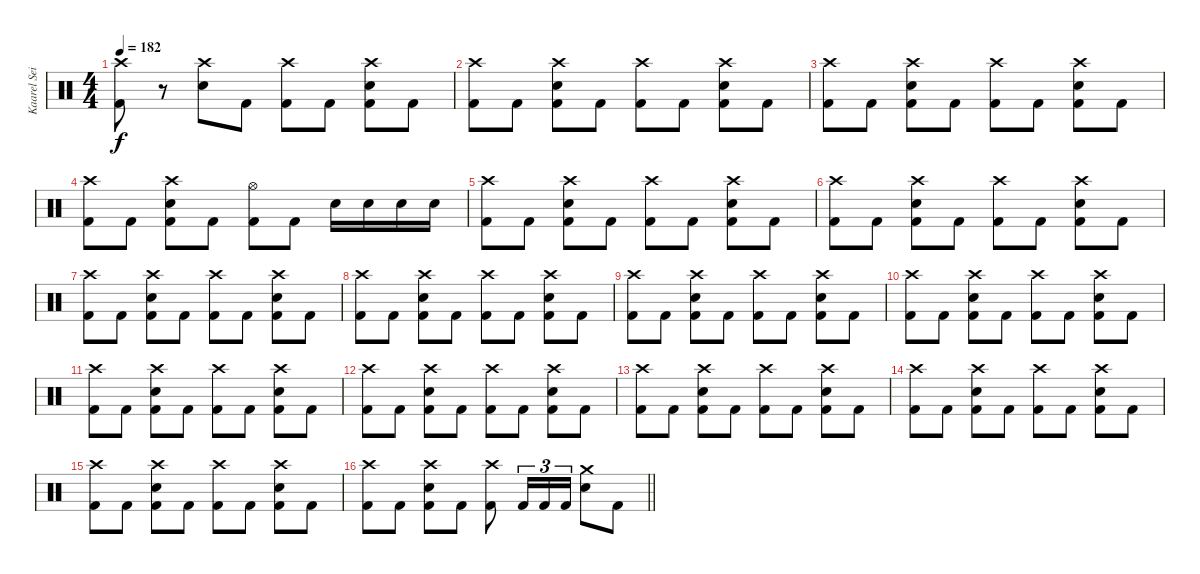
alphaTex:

\track ("Kaarel Sein" "Kaarel Sei") {instrument percussion}
\staff {score}
\articulation defaults
\ts (4 4)
\tempo 182
\clef neutral
\ks c
("Crash high (hit)" "Kick (hit) 2").8{dy f} r.8 ("Crash high (hit)" "Electric Snare (hit)").8 "Kick (hit) 2".8 ("Crash high (hit)" "Kick (hit) 2").8 "Kick (hit) 2".8 ("Crash high (hit)" "Electric Snare (hit)" "Kick (hit) 2").8 "Kick (hit) 2".8 |
("Crash high (hit)" "Kick (hit) 2").8 "Kick (hit) 2".8 ("Crash high (hit)" "Electric Snare (hit)" "Kick (hit) 2").8 "Kick (hit) 2".8 ("Crash high (hit)" "Kick (hit) 2").8 "Kick (hit) 2".8 ("Crash high (hit)" "Electric Snare (hit)" "Kick (hit) 2").8 "Kick (hit) 2".8 |
("Crash high (hit)" "Kick (hit) 2").8 "Kick (hit) 2".8 ("Crash high (hit)" "Electric Snare (hit)" "Kick (hit) 2").8 "Kick (hit) 2".8 ("Crash high (hit)" "Kick (hit) 2").8 "Kick (hit) 2".8 ("Crash high (hit)" "Electric Snare (hit)" "Kick (hit) 2").8 "Kick (hit) 2".8 |
("Crash high (hit)" "Kick (hit) 2").8 "Kick (hit) 2".8 ("Crash high (hit)" "Electric Snare (hit)" "Kick (hit) 2").8 "Kick (hit) 2".8 ("Hi-Hat (open)" "Kick (hit) 2").8 "Kick (hit) 2".8 "Electric Snare (hit)".16 "Electric Snare (hit)".16 "Electric Snare (hit)".16 "Electric Snare (hit)".16 |
("Crash high (hit)" "Kick (hit) 2").8 "Kick (hit) 2".8 ("Crash high (hit)" "Electric Snare (hit)" "Kick (hit) 2").8 "Kick (hit) 2".8 ("Crash high (hit)" "Kick (hit) 2").8 "Kick (hit) 2".8 ("Crash high (hit)" "Electric Snare (hit)" "Kick (hit) 2").8 "Kick (hit) 2".8 |
("Crash high (hit)" "Kick (hit) 2").8 "Kick (hit) 2".8 ("Crash high (hit)" "Electric Snare (hit)" "Kick (hit) 2").8 "Kick (hit) 2".8 ("Crash high (hit)" "Kick (hit) 2").8 "Kick (hit) 2".8 ("Crash high (hit)" "Electric Snare (hit)" "Kick (hit) 2").8 "Kick (hit) 2".8 |
("Crash high (hit)" "Kick (hit) 2").8 "Kick (hit) 2".8 ("Crash high (hit)" "Electric Snare (hit)" "Kick (hit) 2").8 "Kick (hit) 2".8 ("Crash high (hit)" "Kick (hit) 2").8 "Kick (hit) 2".8 ("Crash high (hit)" "Electric Snare (hit)" "Kick (hit) 2").8 "Kick (hit) 2".8 |
("Crash high (hit)" "Kick (hit) 2").8 "Kick (hit) 2".8 ("Crash high (hit)" "Electric Snare (hit)" "Kick (hit) 2").8 "Kick (hit) 2".8 ("Crash high (hit)" "Kick (hit) 2").8 "Kick (hit) 2".8 ("Crash high (hit)" "Electric Snare (hit)" "Kick (hit) 2").8 "Kick (hit) 2".8 |
("Crash high (hit)" "Kick (hit) 2").8 "Kick (hit) 2".8 ("Crash high (hit)" "Electric Snare (hit)" "Kick (hit) 2").8 "Kick (hit) 2".8 ("Crash high (hit)" "Kick (hit) 2").8 "Kick (hit) 2".8 ("Crash high (hit)" "Electric Snare (hit)" "Kick (hit) 2").8 "Kick (hit) 2".8 |
("Crash high (hit)" "Kick (hit) 2").8 "Kick (hit) 2".8 ("Crash high (hit)" "Electric Snare (hit)" "Kick (hit) 2").8 "Kick (hit) 2".8 ("Crash high (hit)" "Kick (hit) 2").8 "Kick (hit) 2".8 ("Crash high (hit)" "Electric Snare (hit)" "Kick (hit) 2").8 "Kick (hit) 2".8 |
("Crash high (hit)" "Kick (hit) 2").8 "Kick (hit) 2".8 ("Crash high (hit)" "Electric Snare (hit)" "Kick (hit) 2").8 "Kick (hit) 2".8 ("Crash high (hit)" "Kick (hit) 2").8 "Kick (hit) 2".8 ("Crash high (hit)" "Electric Snare (hit)" "Kick (hit) 2").8 "Kick (hit) 2".8 |
("Crash high (hit)" "Kick (hit) 2").8 "Kick (hit) 2".8 ("Crash high (hit)" "Electric Snare (hit)" "Kick (hit) 2").8 "Kick (hit) 2".8 ("Crash high (hit)" "Kick (hit) 2").8 "Kick (hit) 2".8 ("Crash high (hit)" "Electric Snare (hit)" "Kick (hit) 2").8 "Kick (hit) 2".8 |
("Crash high (hit)" "Kick (hit) 2").8 "Kick (hit) 2".8 ("Crash high (hit)" "Electric Snare (hit)" "Kick (hit) 2").8 "Kick (hit) 2".8 ("Crash high (hit)" "Kick (hit) 2").8 "Kick (hit) 2".8 ("Crash high (hit)" "Electric Snare (hit)" "Kick (hit) 2").8 "Kick (hit) 2".8 |
("Crash high (hit)" "Kick (hit) 2").8 "Kick (hit) 2".8 ("Crash high (hit)" "Electric Snare (hit)" "Kick (hit) 2").8 "Kick (hit) 2".8 ("Crash high (hit)" "Kick (hit) 2").8 "Kick (hit) 2".8 ("Crash high (hit)" "Electric Snare (hit)" "Kick (hit) 2").8 "Kick (hit) 2".8 |
("Crash high (hit)" "Kick (hit) 2").8 "Kick (hit) 2".8 ("Crash high (hit)" "Electric Snare (hit)" "Kick (hit) 2").8 "Kick (hit) 2".8 ("Crash high (hit)" "Kick (hit) 2").8 "Kick (hit) 2".8 ("Crash high (hit)" "Electric Snare (hit)" "Kick (hit) 2").8 "Kick (hit) 2".8 |
\barLineRight lightlight
("Crash high (hit)" "Kick (hit) 2").8 "Kick (hit) 2".8 ("Crash high (hit)" "Electric Snare (hit)" "Kick (hit) 2").8 "Kick (hit) 2".8 ("Crash high (hit)" "Kick (hit) 2").8 "Kick (hit) 2".16{tu (3 2)} "Kick (hit) 2".16{tu (3 2)} "Kick (hit) 2".16{tu (3 2)} ("Crash medium (hit)" "Electric Snare (hit)").8 "Kick (hit) 2".8
